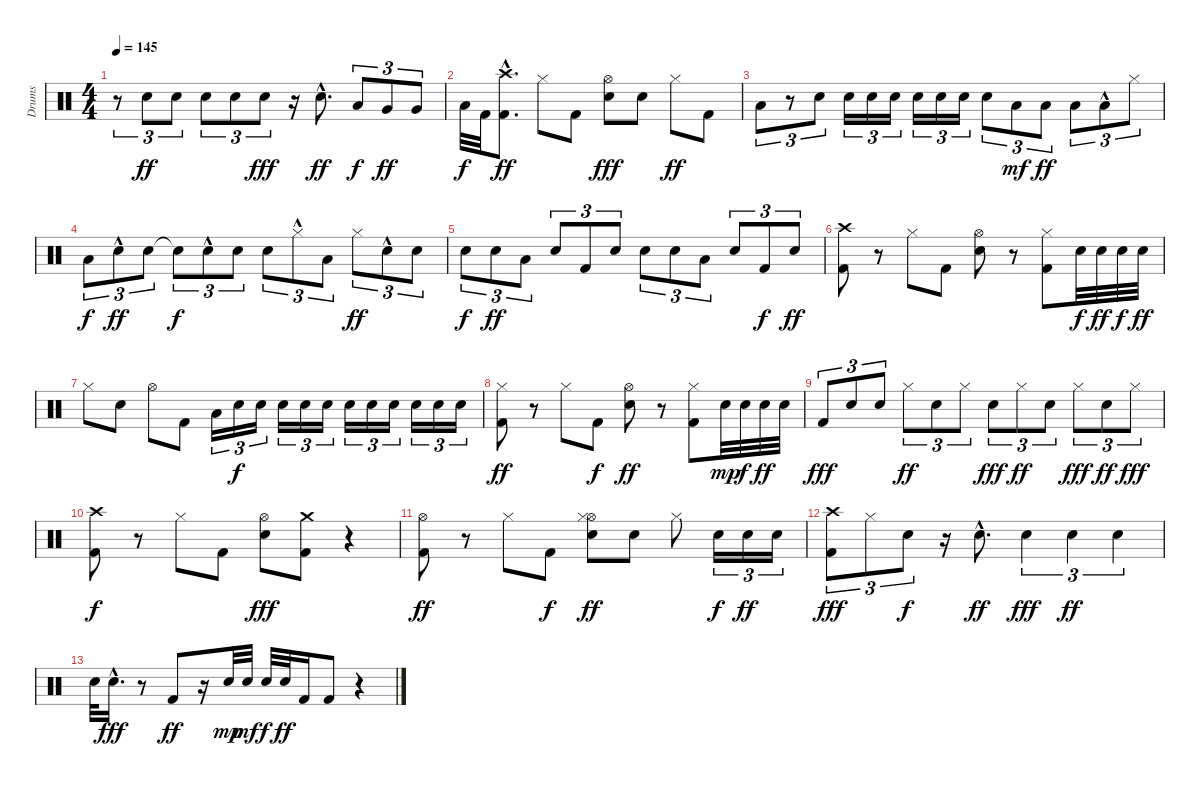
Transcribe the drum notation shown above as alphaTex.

\track ("Drums" "Drums") {instrument percussion}
\staff {score}
\articulation defaults
\ts (4 4)
\tempo 145
\clef neutral
\ks c
r.8{tu (3 2) dy ff} "Snare (hit) 2".8{tu (3 2)} "Snare (hit) 2".8{tu (3 2)} "Snare (hit) 2".8{tu (3 2)} "Snare (hit) 2".8{tu (3 2)} "Snare (hit) 2".8{tu (3 2) dy fff} r.16 "Snare (hit) 2"{hac}.8{d dy ff} "Low Tom (hit)".8{tu (3 2) dy f} "Very Low Tom (hit)".8{tu (3 2) dy ff} "Very Low Tom (hit)".8{tu (3 2)} |
"Low Floor Tom (hit)".32{dy f} "Kick (hit) 2".32 ("Crash high (hit)"{hac} "Kick (hit) 2"{hac}).8{d dy ff} "Hi-Hat (closed)".8 "Kick (hit) 2".8 ("Hi-Hat (open)" "Snare (hit) 2").8{dy fff} "Snare (hit) 2".8 "Hi-Hat (closed)".8{dy ff} "Kick (hit) 2".8 |
"Low Floor Tom (hit)".8{tu (3 2)} r.8{tu (3 2)} "Snare (hit) 2".8{tu (3 2)} "Snare (hit) 2".16{tu (3 2)} "Snare (hit) 2".16{tu (3 2)} "Snare (hit) 2".16{tu (3 2)} "Snare (hit) 2".16{tu (3 2)} "Snare (hit) 2".16{tu (3 2)} "Snare (hit) 2".16{tu (3 2)} "Snare (hit) 2".8{tu (3 2)} "Low Tom (hit)".8{tu (3 2) dy mf} "Low Floor Tom (hit)".8{tu (3 2) dy ff} "Low Tom (hit)".8{tu (3 2)} "Low Tom (hit)"{hac}.8{tu (3 2)} "Hi-Hat (closed)".8{tu (3 2)} |
"Low Tom (hit)".8{tu (3 2) dy f} "Snare (hit) 2"{hac}.8{tu (3 2) dy ff} "Snare (hit) 2".8{tu (3 2)} "Snare (hit)"{t}.8{tu (3 2) dy f} "Snare (hit) 2"{hac}.8{tu (3 2)} "Snare (hit) 2".8{tu (3 2)} "Snare (hit) 2".8{tu (3 2)} "Hi-Hat (closed)"{hac}.8{tu (3 2)} "Low Tom (hit)".8{tu (3 2)} "Hi-Hat (closed)".8{tu (3 2) dy ff} "Snare (hit) 2"{hac}.8{tu (3 2)} "Snare (hit) 2".8{tu (3 2)} |
"Snare (hit) 2".8{tu (3 2) dy f} "Snare (hit) 2".8{tu (3 2) dy ff} "Low Tom (hit)".8{tu (3 2)} "Snare (hit) 2".8{tu (3 2)} "Kick (hit) 2".8{tu (3 2)} "Snare (hit) 2".8{tu (3 2)} "Snare (hit) 2".8{tu (3 2)} "Snare (hit) 2".8{tu (3 2)} "Low Tom (hit)".8{tu (3 2)} "Snare (hit) 2".8{tu (3 2)} "Kick (hit) 2".8{tu (3 2) dy f} "Snare (hit) 2".8{tu (3 2) dy ff} |
("Crash high (hit)" "Kick (hit) 2").8 r.8 "Hi-Hat (closed)".8 "Kick (hit) 2".8 ("Hi-Hat (open)" "Snare (hit) 2").8 r.8 ("Hi-Hat (closed)" "Kick (hit) 2").8 "Snare (hit) 2".32{dy f} "Snare (hit) 2".32{dy ff} "Snare (hit) 2".32{dy f} "Snare (hit) 2".32{dy ff} |
"Hi-Hat (closed)".8 "Snare (hit) 2".8 "Hi-Hat (open)".8 "Kick (hit) 2".8 "Low Tom (hit)".16{tu (3 2)} "Snare (hit) 2".16{tu (3 2) dy f} "Snare (hit) 2".16{tu (3 2)} "Snare (hit) 2".16{tu (3 2)} "Snare (hit) 2".16{tu (3 2)} "Snare (hit) 2".16{tu (3 2)} "Snare (hit) 2".16{tu (3 2)} "Snare (hit) 2".16{tu (3 2)} "Snare (hit) 2".16{tu (3 2)} "Snare (hit) 2".16{tu (3 2)} "Snare (hit) 2".16{tu (3 2)} "Snare (hit) 2".16{tu (3 2)} |
("Hi-Hat (closed)" "Kick (hit) 2").8{dy ff} r.8 "Hi-Hat (closed)".8 "Kick (hit) 2".8{dy f} ("Hi-Hat (open)" "Snare (hit) 2").8{dy ff} r.8 ("Hi-Hat (closed)" "Kick (hit) 2").8 "Snare (hit) 2".32{dy mp} "Snare (hit) 2".32{dy f} "Snare (hit) 2".32{dy ff} "Snare (hit) 2".32 |
"Kick (hit) 2".8{tu (3 2) dy fff} "Snare (hit) 2".8{tu (3 2)} "Snare (hit) 2".8{tu (3 2)} "Hi-Hat (closed)".8{tu (3 2) dy ff} "Snare (hit) 2".8{tu (3 2)} "Hi-Hat (closed)".8{tu (3 2)} "Snare (hit) 2".8{tu (3 2) dy fff} "Hi-Hat (closed)".8{tu (3 2) dy ff} "Snare (hit) 2".8{tu (3 2)} "Hi-Hat (closed)".8{tu (3 2) dy fff} "Snare (hit) 2".8{tu (3 2) dy ff} "Hi-Hat (closed)".8{tu (3 2) dy fff} |
("Crash high (hit)" "Kick (hit) 2").8{dy f} r.8 "Hi-Hat (closed)".8 "Kick (hit) 2".8 ("Hi-Hat (open)" "Snare (hit) 2").8{dy fff} ("Crash medium (hit)" "Kick (hit) 2").8 r.4 |
("Hi-Hat (open)" "Kick (hit) 2").8{dy ff} r.8 "Hi-Hat (closed)".8 "Kick (hit) 2".8{dy f} ("Hi-Hat (open)" "Hi-Hat (closed)" "Snare (hit) 2").8{dy ff} "Snare (hit) 2".8 "Hi-Hat (closed)".8 "Snare (hit) 2".16{tu (3 2) dy f} "Snare (hit) 2".16{tu (3 2) dy ff} "Snare (hit) 2".16{tu (3 2)} |
("Crash high (hit)" "Kick (hit) 2").8{tu (3 2) dy fff} "Hi-Hat (closed)".8{tu (3 2)} "Snare (hit) 2".8{tu (3 2) dy f} r.16 "Snare (hit) 2"{hac}.8{d dy ff} "Snare (hit) 2".4{tu (3 2) dy fff} "Snare (hit) 2".4{tu (3 2) dy ff} "Snare (hit) 2".4{tu (3 2)} |
"Snare (hit) 2".32 "Snare (hit) 2"{hac}.16{d dy fff} r.8 "Kick (hit) 2".8{dy ff} r.16 "Snare (hit) 2".32{dy mp} "Snare (hit) 2".32{dy mf} "Snare (hit) 2".32{dy f} "Snare (hit) 2".32{dy ff} "Kick (hit) 2".16 "Kick (hit) 2".8 r.4
